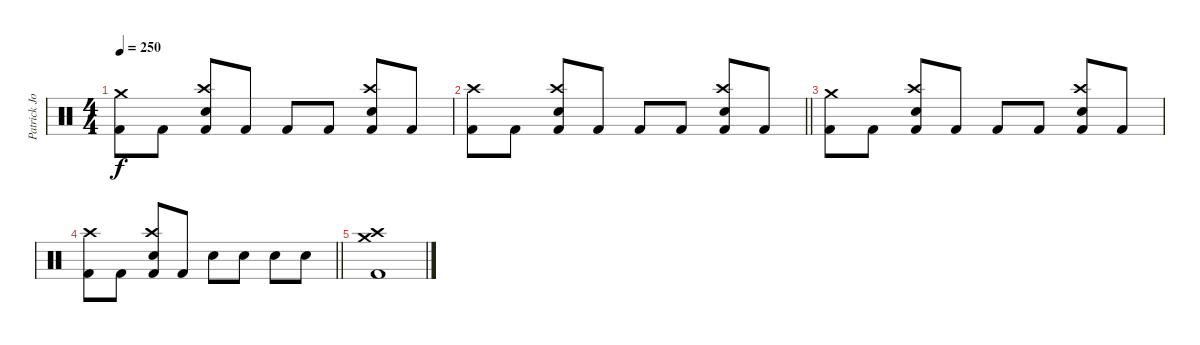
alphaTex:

\track ("Patrick Johansson" "Patrick Jo") {instrument percussion}
\staff {score}
\articulation defaults
\ts (4 4)
\tempo 250
\clef neutral
\ks c
("Crash medium (hit)" "Kick (hit) 2").8{dy f} "Kick (hit) 2".8 ("Crash high (hit)" "Snare (hit) 2" "Kick (hit) 2").8 "Kick (hit) 2".8 "Kick (hit) 2".8 "Kick (hit) 2".8 ("Crash high (hit)" "Snare (hit) 2" "Kick (hit) 2").8 "Kick (hit) 2".8 |
\barLineRight lightlight
("Crash high (hit)" "Kick (hit) 2").8 "Kick (hit) 2".8 ("Crash high (hit)" "Snare (hit) 2" "Kick (hit) 2").8 "Kick (hit) 2".8 "Kick (hit) 2".8 "Kick (hit) 2".8 ("Crash high (hit)" "Snare (hit) 2" "Kick (hit) 2").8 "Kick (hit) 2".8 |
("Crash medium (hit)" "Kick (hit) 2").8 "Kick (hit) 2".8 ("Crash high (hit)" "Snare (hit) 2" "Kick (hit) 2").8 "Kick (hit) 2".8 "Kick (hit) 2".8 "Kick (hit) 2".8 ("Crash high (hit)" "Snare (hit) 2" "Kick (hit) 2").8 "Kick (hit) 2".8 |
\barLineRight lightlight
("Crash high (hit)" "Kick (hit) 2").8 "Kick (hit) 2".8 ("Crash high (hit)" "Snare (hit) 2" "Kick (hit) 2").8 "Kick (hit) 2".8 "Snare (hit) 2".8 "Snare (hit) 2".8 "Snare (hit) 2".8 "Snare (hit) 2".8 |
("Crash medium (hit)" "Crash high (hit)" "Kick (hit) 2").1
